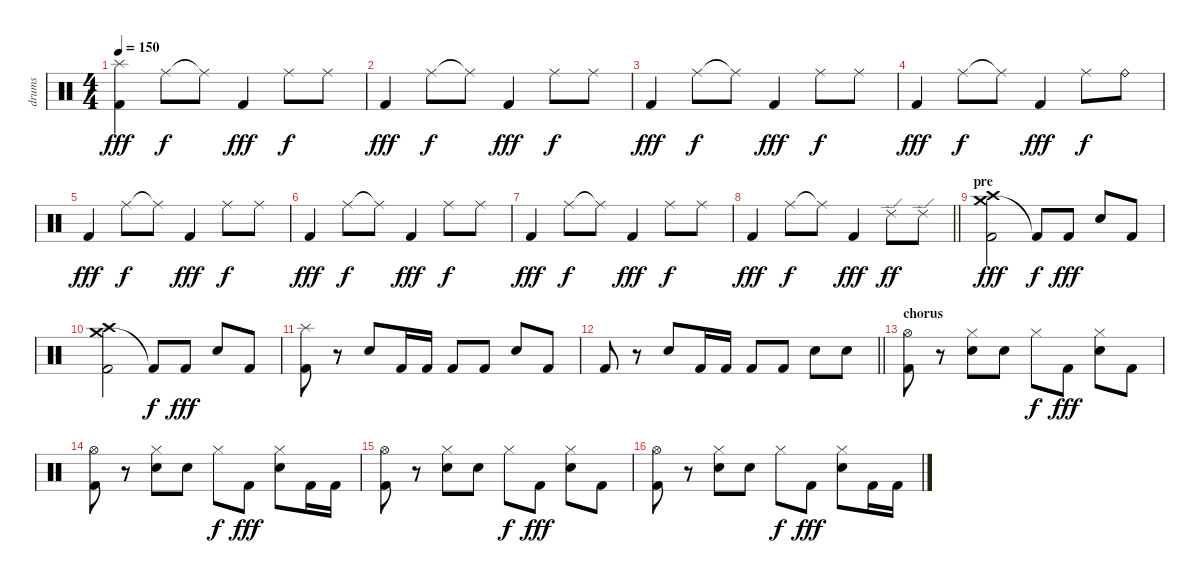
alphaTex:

\track ("drums" "drums") {instrument percussion}
\staff {score}
\articulation defaults
\ts (4 4)
\tempo 150
\clef neutral
\ks c
("Splash (hit)" "Kick (hit) 2").4{dy fff} "Ride (middle)".8{dy f} "Ride (middle)"{t}.8 "Kick (hit) 2".4{dy fff} "Ride (middle)".8{dy f} "Ride (middle)".8 |
"Kick (hit) 2".4{dy fff} "Ride (middle)".8{dy f} "Ride (middle)"{t}.8 "Kick (hit) 2".4{dy fff} "Ride (middle)".8{dy f} "Ride (middle)".8 |
"Kick (hit) 2".4{dy fff} "Ride (middle)".8{dy f} "Ride (middle)"{t}.8 "Kick (hit) 2".4{dy fff} "Ride (middle)".8{dy f} "Ride (middle)".8 |
"Kick (hit) 2".4{dy fff} "Ride (middle)".8{dy f} "Ride (middle)"{t}.8 "Kick (hit) 2".4{dy fff} "Ride (middle)".8{dy f} "Ride (bell)".8 |
"Kick (hit) 2".4{dy fff} "Ride (middle)".8{dy f} "Ride (middle)"{t}.8 "Kick (hit) 2".4{dy fff} "Ride (middle)".8{dy f} "Ride (middle)".8 |
"Kick (hit) 2".4{dy fff} "Ride (middle)".8{dy f} "Ride (middle)"{t}.8 "Kick (hit) 2".4{dy fff} "Ride (middle)".8{dy f} "Ride (middle)".8 |
"Kick (hit) 2".4{dy fff} "Ride (middle)".8{dy f} "Ride (middle)"{t}.8 "Kick (hit) 2".4{dy fff} "Ride (middle)".8{dy f} "Ride (middle)".8 |
\barLineRight lightlight "Kick (hit) 2".4{dy fff} "Ride (middle)".8{dy f} "Ride (middle)"{t}.8 "Kick (hit) 2".4{dy fff} "Ride (edge) 2".8{dy ff} "Ride (edge) 2".8
|
\section ("" "pre")
("Crash medium (hit)" "Crash high (hit)" "Kick (hit) 2").2{dy fff} "Kick (hit) 2"{t}.8{dy f} "Kick (hit) 2".8{dy fff} "Snare (hit) 2".8 "Kick (hit) 2".8 |
("Crash medium (hit)" "Crash high (hit)" "Kick (hit) 2").2 "Kick (hit) 2"{t}.8{dy f} "Kick (hit) 2".8{dy fff} "Snare (hit) 2".8 "Kick (hit) 2".8 |
("Splash (hit)" "Kick (hit) 2").8 r.8 "Snare (hit) 2".8 "Kick (hit) 2".16 "Kick (hit) 2".16 "Kick (hit) 2".8 "Kick (hit) 2".8 "Snare (hit) 2".8 "Kick (hit) 2".8 |
\barLineRight lightlight "Kick (hit) 2".8
r.8 "Snare (hit) 2".8 "Kick (hit) 2".16 "Kick (hit) 2".16 "Kick (hit) 2".8 "Kick (hit) 2".8 "Snare (hit) 2".8 "Snare (hit) 2".8 |
\section ("" "chorus")
("Hi-Hat (open)" "Kick (hit) 2").8 r.8 ("Hi-Hat (closed)" "Snare (hit) 2").8 "Snare (hit) 2".8 "Hi-Hat (closed)".8{dy f} "Kick (hit) 2".8{dy fff} ("Hi-Hat (closed)" "Snare (hit) 2").8 "Kick (hit) 2".8 |
("Hi-Hat (open)" "Kick (hit) 2").8 r.8 ("Hi-Hat (closed)" "Snare (hit) 2").8 "Snare (hit) 2".8 "Hi-Hat (closed)".8{dy f} "Kick (hit) 2".8{dy fff} ("Hi-Hat (closed)" "Snare (hit) 2").8 "Kick (hit) 2".16 "Kick (hit) 2".16 |
("Hi-Hat (open)" "Kick (hit) 2").8 r.8 ("Hi-Hat (closed)" "Snare (hit) 2").8 "Snare (hit) 2".8 "Hi-Hat (closed)".8{dy f} "Kick (hit) 2".8{dy fff} ("Hi-Hat (closed)" "Snare (hit) 2").8 "Kick (hit) 2".8 |
("Hi-Hat (open)" "Kick (hit) 2").8 r.8 ("Hi-Hat (closed)" "Snare (hit) 2").8 "Snare (hit) 2".8 "Hi-Hat (closed)".8{dy f} "Kick (hit) 2".8{dy fff} ("Hi-Hat (closed)" "Snare (hit) 2").8 "Kick (hit) 2".16 "Kick (hit) 2".16
